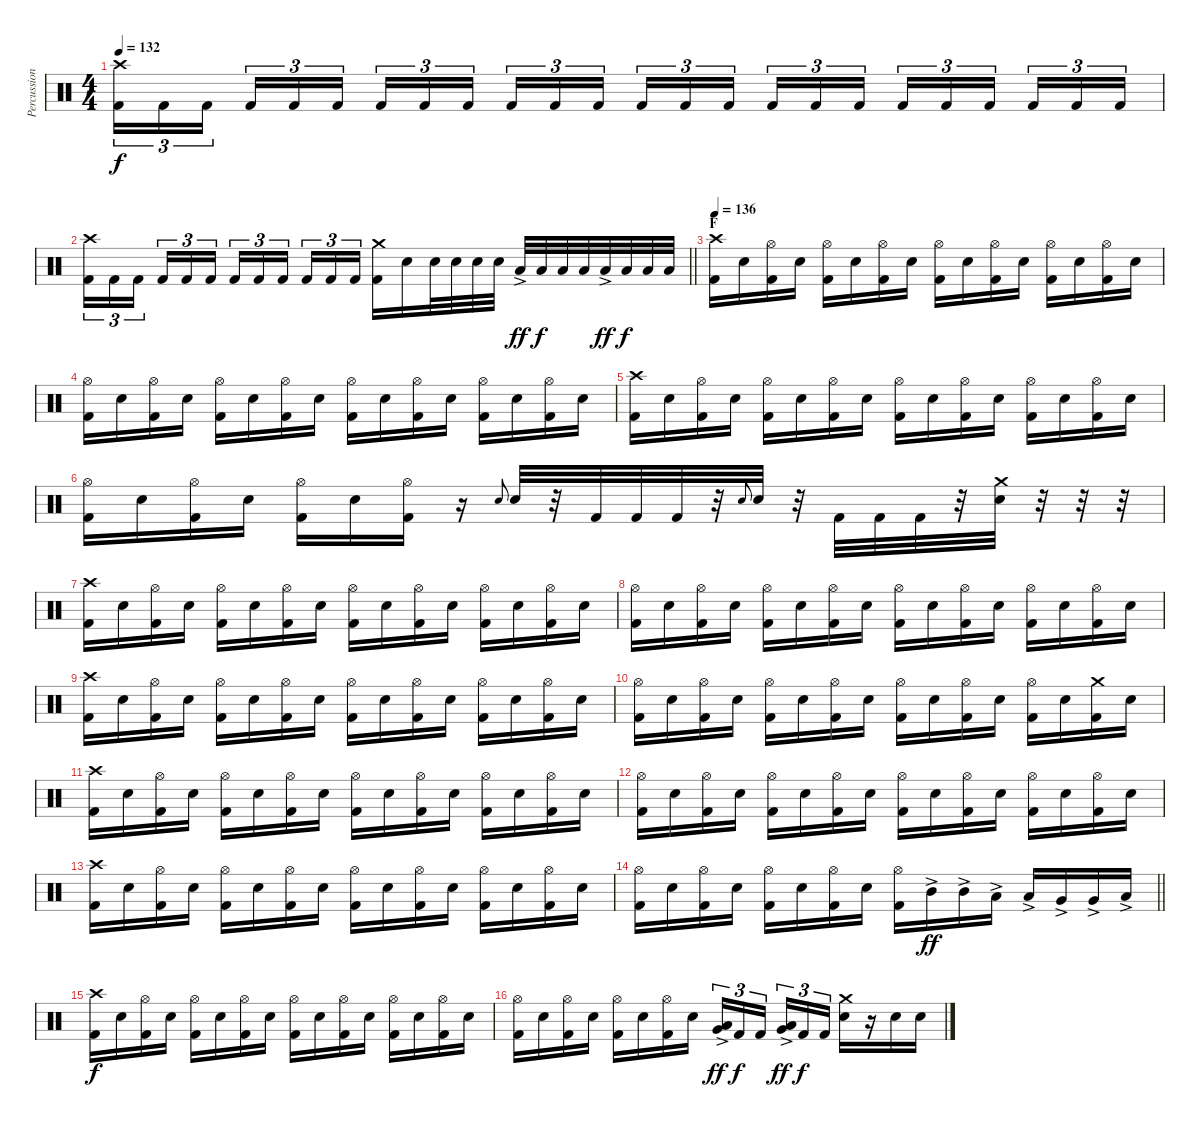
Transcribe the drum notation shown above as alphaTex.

\track ("Percussion" "Percussion") {instrument percussion}
\staff {score}
\articulation defaults
\ts (4 4)
\tempo 132
\clef neutral
\ks c
("Crash high (hit)" "Kick (hit) 2").16{tu (3 2) dy f} "Kick (hit) 2".16{tu (3 2)} "Kick (hit) 2".16{tu (3 2) beam splitsecondary} "Kick (hit) 2".16{tu (3 2)} "Kick (hit) 2".16{tu (3 2)} "Kick (hit) 2".16{tu (3 2)} "Kick (hit) 2".16{tu (3 2)} "Kick (hit) 2".16{tu (3 2)} "Kick (hit) 2".16{tu (3 2) beam splitsecondary} "Kick (hit) 2".16{tu (3 2)} "Kick (hit) 2".16{tu (3 2)} "Kick (hit) 2".16{tu (3 2)} "Kick (hit) 2".16{tu (3 2)} "Kick (hit) 2".16{tu (3 2)} "Kick (hit) 2".16{tu (3 2) beam splitsecondary} "Kick (hit) 2".16{tu (3 2)} "Kick (hit) 2".16{tu (3 2)} "Kick (hit) 2".16{tu (3 2)} "Kick (hit) 2".16{tu (3 2)} "Kick (hit) 2".16{tu (3 2)} "Kick (hit) 2".16{tu (3 2) beam splitsecondary} "Kick (hit) 2".16{tu (3 2)} "Kick (hit) 2".16{tu (3 2)} "Kick (hit) 2".16{tu (3 2)} |
\barLineRight lightlight
("Crash high (hit)" "Kick (hit) 2").16{tu (3 2)} "Kick (hit) 2".16{tu (3 2)} "Kick (hit) 2".16{tu (3 2) beam splitsecondary} "Kick (hit) 2".16{tu (3 2)} "Kick (hit) 2".16{tu (3 2)} "Kick (hit) 2".16{tu (3 2)} "Kick (hit) 2".16{tu (3 2)} "Kick (hit) 2".16{tu (3 2)} "Kick (hit) 2".16{tu (3 2) beam splitsecondary} "Kick (hit) 2".16{tu (3 2)} "Kick (hit) 2".16{tu (3 2)} "Kick (hit) 2".16{tu (3 2)} ("Crash medium (hit)" "Kick (hit) 2").16 "Electric Snare (hit)".16 "Electric Snare (hit)".32 "Electric Snare (hit)".32 "Electric Snare (hit)".32 "Electric Snare (hit)".32 "Low Tom (hit)"{ac}.32{dy ff} "Low Tom (hit)".32{dy f} "Low Tom (hit)".32 "Low Tom (hit)".32 "Low Floor Tom (hit)"{ac}.32{dy ff} "Low Floor Tom (hit)".32{dy f} "Low Floor Tom (hit)".32 "Low Floor Tom (hit)".32 |
\section ("" "F")
\tempo 136
("Crash high (hit)" "Kick (hit) 2").16 "Electric Snare (hit)".16 ("Hi-Hat (open)" "Kick (hit) 2").16 "Electric Snare (hit)".16 ("Hi-Hat (open)" "Kick (hit) 2").16 "Electric Snare (hit)".16 ("Hi-Hat (open)" "Kick (hit) 2").16 "Electric Snare (hit)".16 ("Hi-Hat (open)" "Kick (hit) 2").16 "Electric Snare (hit)".16 ("Hi-Hat (open)" "Kick (hit) 2").16 "Electric Snare (hit)".16 ("Hi-Hat (open)" "Kick (hit) 2").16 "Electric Snare (hit)".16 ("Hi-Hat (open)" "Kick (hit) 2").16 "Electric Snare (hit)".16 |
("Hi-Hat (open)" "Kick (hit) 2").16 "Electric Snare (hit)".16 ("Hi-Hat (open)" "Kick (hit) 2").16 "Electric Snare (hit)".16 ("Hi-Hat (open)" "Kick (hit) 2").16 "Electric Snare (hit)".16 ("Hi-Hat (open)" "Kick (hit) 2").16 "Electric Snare (hit)".16 ("Hi-Hat (open)" "Kick (hit) 2").16 "Electric Snare (hit)".16 ("Hi-Hat (open)" "Kick (hit) 2").16 "Electric Snare (hit)".16 ("Hi-Hat (open)" "Kick (hit) 2").16 "Electric Snare (hit)".16 ("Hi-Hat (open)" "Kick (hit) 2").16 "Electric Snare (hit)".16 |
("Crash high (hit)" "Kick (hit) 2").16 "Electric Snare (hit)".16 ("Hi-Hat (open)" "Kick (hit) 2").16 "Electric Snare (hit)".16 ("Hi-Hat (open)" "Kick (hit) 2").16 "Electric Snare (hit)".16 ("Hi-Hat (open)" "Kick (hit) 2").16 "Electric Snare (hit)".16 ("Hi-Hat (open)" "Kick (hit) 2").16 "Electric Snare (hit)".16 ("Hi-Hat (open)" "Kick (hit) 2").16 "Electric Snare (hit)".16 ("Hi-Hat (open)" "Kick (hit) 2").16 "Electric Snare (hit)".16 ("Hi-Hat (open)" "Kick (hit) 2").16 "Electric Snare (hit)".16 |
("Hi-Hat (open)" "Kick (hit) 2").16 "Electric Snare (hit)".16 ("Hi-Hat (open)" "Kick (hit) 2").16 "Electric Snare (hit)".16 ("Hi-Hat (open)" "Kick (hit) 2").16 "Electric Snare (hit)".16 ("Hi-Hat (open)" "Kick (hit) 2").16 r.16 "Electric Snare (hit)".8{gr onbeat} "Electric Snare (hit)".32 r.32 "Kick (hit) 2".32 "Kick (hit) 2".32 "Kick (hit) 2".32 r.32 "Electric Snare (hit)".8{gr onbeat} "Electric Snare (hit)".32 r.32 "Kick (hit) 2".32 "Kick (hit) 2".32 "Kick (hit) 2".32 r.32 ("Crash medium (hit)" "Electric Snare (hit)").32 r.32 r.32 r.32 |
("Crash high (hit)" "Kick (hit) 2").16 "Electric Snare (hit)".16 ("Hi-Hat (open)" "Kick (hit) 2").16 "Electric Snare (hit)".16 ("Hi-Hat (open)" "Kick (hit) 2").16 "Electric Snare (hit)".16 ("Hi-Hat (open)" "Kick (hit) 2").16 "Electric Snare (hit)".16 ("Hi-Hat (open)" "Kick (hit) 2").16 "Electric Snare (hit)".16 ("Hi-Hat (open)" "Kick (hit) 2").16 "Electric Snare (hit)".16 ("Hi-Hat (open)" "Kick (hit) 2").16 "Electric Snare (hit)".16 ("Hi-Hat (open)" "Kick (hit) 2").16 "Electric Snare (hit)".16 |
("Hi-Hat (open)" "Kick (hit) 2").16 "Electric Snare (hit)".16 ("Hi-Hat (open)" "Kick (hit) 2").16 "Electric Snare (hit)".16 ("Hi-Hat (open)" "Kick (hit) 2").16 "Electric Snare (hit)".16 ("Hi-Hat (open)" "Kick (hit) 2").16 "Electric Snare (hit)".16 ("Hi-Hat (open)" "Kick (hit) 2").16 "Electric Snare (hit)".16 ("Hi-Hat (open)" "Kick (hit) 2").16 "Electric Snare (hit)".16 ("Hi-Hat (open)" "Kick (hit) 2").16 "Electric Snare (hit)".16 ("Hi-Hat (open)" "Kick (hit) 2").16 "Electric Snare (hit)".16 |
("Crash high (hit)" "Kick (hit) 2").16 "Electric Snare (hit)".16 ("Hi-Hat (open)" "Kick (hit) 2").16 "Electric Snare (hit)".16 ("Hi-Hat (open)" "Kick (hit) 2").16 "Electric Snare (hit)".16 ("Hi-Hat (open)" "Kick (hit) 2").16 "Electric Snare (hit)".16 ("Hi-Hat (open)" "Kick (hit) 2").16 "Electric Snare (hit)".16 ("Hi-Hat (open)" "Kick (hit) 2").16 "Electric Snare (hit)".16 ("Hi-Hat (open)" "Kick (hit) 2").16 "Electric Snare (hit)".16 ("Hi-Hat (open)" "Kick (hit) 2").16 "Electric Snare (hit)".16 |
("Hi-Hat (open)" "Kick (hit) 2").16 "Electric Snare (hit)".16 ("Hi-Hat (open)" "Kick (hit) 2").16 "Electric Snare (hit)".16 ("Hi-Hat (open)" "Kick (hit) 2").16 "Electric Snare (hit)".16 ("Hi-Hat (open)" "Kick (hit) 2").16 "Electric Snare (hit)".16 ("Hi-Hat (open)" "Kick (hit) 2").16 "Electric Snare (hit)".16 ("Hi-Hat (open)" "Kick (hit) 2").16 "Electric Snare (hit)".16 ("Hi-Hat (open)" "Kick (hit) 2").16 "Electric Snare (hit)".16 ("Crash medium (hit)" "Kick (hit) 2").16 "Electric Snare (hit)".16 |
("Crash high (hit)" "Kick (hit) 2").16 "Electric Snare (hit)".16 ("Hi-Hat (open)" "Kick (hit) 2").16 "Electric Snare (hit)".16 ("Hi-Hat (open)" "Kick (hit) 2").16 "Electric Snare (hit)".16 ("Hi-Hat (open)" "Kick (hit) 2").16 "Electric Snare (hit)".16 ("Hi-Hat (open)" "Kick (hit) 2").16 "Electric Snare (hit)".16 ("Hi-Hat (open)" "Kick (hit) 2").16 "Electric Snare (hit)".16 ("Hi-Hat (open)" "Kick (hit) 2").16 "Electric Snare (hit)".16 ("Hi-Hat (open)" "Kick (hit) 2").16 "Electric Snare (hit)".16 |
("Hi-Hat (open)" "Kick (hit) 2").16 "Electric Snare (hit)".16 ("Hi-Hat (open)" "Kick (hit) 2").16 "Electric Snare (hit)".16 ("Hi-Hat (open)" "Kick (hit) 2").16 "Electric Snare (hit)".16 ("Hi-Hat (open)" "Kick (hit) 2").16 "Electric Snare (hit)".16 ("Hi-Hat (open)" "Kick (hit) 2").16 "Electric Snare (hit)".16 ("Hi-Hat (open)" "Kick (hit) 2").16 "Electric Snare (hit)".16 ("Hi-Hat (open)" "Kick (hit) 2").16 "Electric Snare (hit)".16 ("Hi-Hat (open)" "Kick (hit) 2").16 "Electric Snare (hit)".16 |
("Crash high (hit)" "Kick (hit) 2").16 "Electric Snare (hit)".16 ("Hi-Hat (open)" "Kick (hit) 2").16 "Electric Snare (hit)".16 ("Hi-Hat (open)" "Kick (hit) 2").16 "Electric Snare (hit)".16 ("Hi-Hat (open)" "Kick (hit) 2").16 "Electric Snare (hit)".16 ("Hi-Hat (open)" "Kick (hit) 2").16 "Electric Snare (hit)".16 ("Hi-Hat (open)" "Kick (hit) 2").16 "Electric Snare (hit)".16 ("Hi-Hat (open)" "Kick (hit) 2").16 "Electric Snare (hit)".16 ("Hi-Hat (open)" "Kick (hit) 2").16 "Electric Snare (hit)".16 |
\barLineRight lightlight
("Hi-Hat (open)" "Kick (hit) 2").16 "Electric Snare (hit)".16 ("Hi-Hat (open)" "Kick (hit) 2").16 "Electric Snare (hit)".16 ("Hi-Hat (open)" "Kick (hit) 2").16 "Electric Snare (hit)".16 ("Hi-Hat (open)" "Kick (hit) 2").16 "Electric Snare (hit)".16 ("Hi-Hat (open)" "Kick (hit) 2").16 "Mid Tom (hit)"{ac}.16{dy ff} "Mid Tom (hit)"{ac}.16 "Low Tom (hit)"{ac}.16 "Low Tom (hit)"{ac}.16 "Very Low Tom (hit)"{ac}.16 "Very Low Tom (hit)"{ac}.16 "Low Floor Tom (hit)"{ac}.16 |
("Crash high (hit)" "Kick (hit) 2").16{dy f} "Electric Snare (hit)".16 ("Hi-Hat (open)" "Kick (hit) 2").16 "Electric Snare (hit)".16 ("Hi-Hat (open)" "Kick (hit) 2").16 "Electric Snare (hit)".16 ("Hi-Hat (open)" "Kick (hit) 2").16 "Electric Snare (hit)".16 ("Hi-Hat (open)" "Kick (hit) 2").16 "Electric Snare (hit)".16 ("Hi-Hat (open)" "Kick (hit) 2").16 "Electric Snare (hit)".16 ("Hi-Hat (open)" "Kick (hit) 2").16 "Electric Snare (hit)".16 ("Hi-Hat (open)" "Kick (hit) 2").16 "Electric Snare (hit)".16 |
("Hi-Hat (open)" "Kick (hit) 2").16 "Electric Snare (hit)".16 ("Hi-Hat (open)" "Kick (hit) 2").16 "Electric Snare (hit)".16 ("Hi-Hat (open)" "Kick (hit) 2").16 "Electric Snare (hit)".16 ("Hi-Hat (open)" "Kick (hit) 2").16 "Electric Snare (hit)".16 ("Low Tom (hit)"{ac} "Very Low Tom (hit)"{ac}).16{tu (3 2) dy ff} "Kick (hit) 2".16{tu (3 2) dy f} "Kick (hit) 2".16{tu (3 2) beam splitsecondary} ("Low Tom (hit)"{ac} "Very Low Tom (hit)"{ac}).16{tu (3 2) dy ff} "Kick (hit) 2".16{tu (3 2) dy f} "Kick (hit) 2".16{tu (3 2)} ("Crash medium (hit)" "Electric Snare (hit)").16 r.16 "Electric Snare (hit)".16 "Electric Snare (hit)".16
